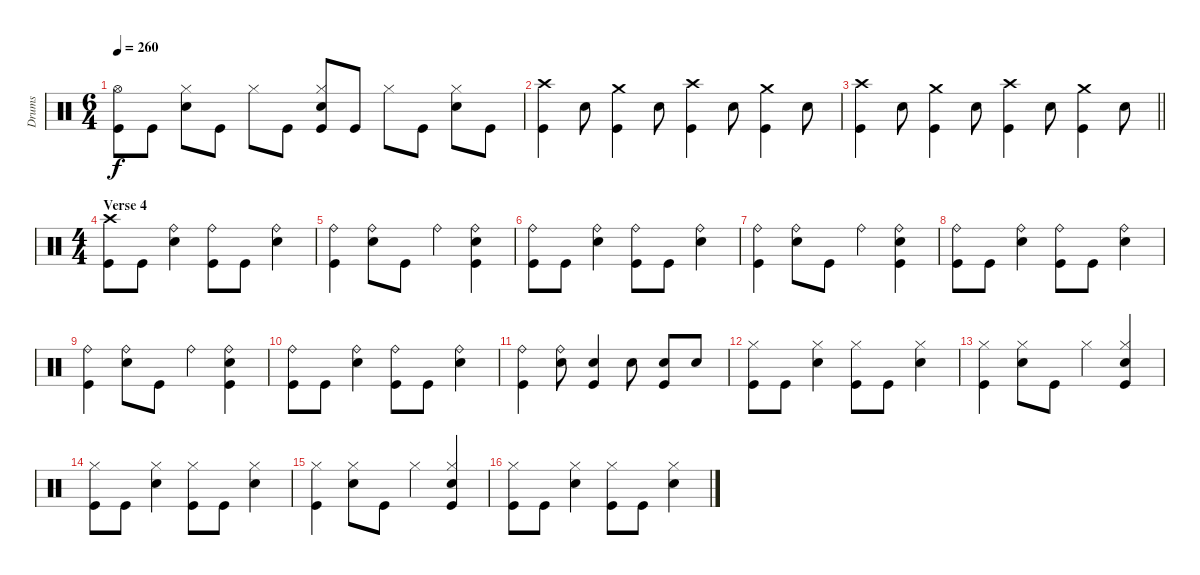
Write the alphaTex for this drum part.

\track ("Drums" "Drums") {instrument percussion}
\staff {score}
\articulation defaults
\ts (6 4)
\tempo 260
\clef neutral
\ks c
("Hi-Hat (open)" "Kick (hit)").8{dy f} "Kick (hit)".8 ("Hi-Hat (closed)" "Snare (hit) 2").8 "Kick (hit)".8 "Hi-Hat (closed)".8 "Kick (hit)".8 ("Hi-Hat (closed)" "Snare (hit) 2" "Kick (hit)").8 "Kick (hit)".8 "Hi-Hat (closed)".8 "Kick (hit)".8 ("Hi-Hat (closed)" "Snare (hit) 2").8 "Kick (hit)".8 |
("Crash high (hit)" "Kick (hit)").4 "Snare (hit) 2".8 ("Crash medium (hit)" "Kick (hit)").4 "Snare (hit) 2".8 ("Crash high (hit)" "Kick (hit)").4 "Snare (hit) 2".8 ("Crash medium (hit)" "Kick (hit)").4 "Snare (hit) 2".8 |
\barLineRight lightlight
("Crash high (hit)" "Kick (hit)").4 "Snare (hit) 2".8 ("Crash medium (hit)" "Kick (hit)").4 "Snare (hit) 2".8 ("Crash high (hit)" "Kick (hit)").4 "Snare (hit) 2".8 ("Crash medium (hit)" "Kick (hit)").4 "Snare (hit) 2".8 |
\ts (4 4)
\section ("" "Verse 4")
("Crash high (hit)" "Kick (hit)").8 "Kick (hit)".8 ("Ride (bell)" "Snare (hit) 2").4 ("Ride (bell)" "Kick (hit)").8 "Kick (hit)".8 ("Ride (bell)" "Snare (hit) 2").4 |
("Ride (bell)" "Kick (hit)").4 ("Ride (bell)" "Snare (hit) 2").8 "Kick (hit)".8 "Ride (bell)".4 ("Ride (bell)" "Snare (hit) 2" "Kick (hit)").4 |
("Ride (bell)" "Kick (hit)").8 "Kick (hit)".8 ("Ride (bell)" "Snare (hit) 2").4 ("Ride (bell)" "Kick (hit)").8 "Kick (hit)".8 ("Ride (bell)" "Snare (hit) 2").4 |
("Ride (bell)" "Kick (hit)").4 ("Ride (bell)" "Snare (hit) 2").8 "Kick (hit)".8 "Ride (bell)".4 ("Ride (bell)" "Snare (hit) 2" "Kick (hit)").4 |
("Ride (bell)" "Kick (hit)").8 "Kick (hit)".8 ("Ride (bell)" "Snare (hit) 2").4 ("Ride (bell)" "Kick (hit)").8 "Kick (hit)".8 ("Ride (bell)" "Snare (hit) 2").4 |
("Ride (bell)" "Kick (hit)").4 ("Ride (bell)" "Snare (hit) 2").8 "Kick (hit)".8 "Ride (bell)".4 ("Ride (bell)" "Snare (hit) 2" "Kick (hit)").4 |
("Ride (bell)" "Kick (hit)").8 "Kick (hit)".8 ("Ride (bell)" "Snare (hit) 2").4 ("Ride (bell)" "Kick (hit)").8 "Kick (hit)".8 ("Ride (bell)" "Snare (hit) 2").4 |
("Ride (bell)" "Kick (hit)").4 ("Ride (bell)" "Snare (hit) 2").8 ("Snare (hit) 2" "Kick (hit)").4 "Snare (hit) 2".8 ("Snare (hit) 2" "Kick (hit)").8 "Snare (hit) 2".8 |
("Hi-Hat (closed)" "Kick (hit)").8 "Kick (hit)".8 ("Hi-Hat (closed)" "Snare (hit) 2").4 ("Hi-Hat (closed)" "Kick (hit)").8 "Kick (hit)".8 ("Hi-Hat (closed)" "Snare (hit) 2").4 |
("Hi-Hat (closed)" "Kick (hit)").4 ("Hi-Hat (closed)" "Snare (hit) 2").8 "Kick (hit)".8 "Hi-Hat (closed)".4 ("Hi-Hat (closed)" "Snare (hit) 2" "Kick (hit)").4 |
("Hi-Hat (closed)" "Kick (hit)").8 "Kick (hit)".8 ("Hi-Hat (closed)" "Snare (hit) 2").4 ("Hi-Hat (closed)" "Kick (hit)").8 "Kick (hit)".8 ("Hi-Hat (closed)" "Snare (hit) 2").4 |
("Hi-Hat (closed)" "Kick (hit)").4 ("Hi-Hat (closed)" "Snare (hit) 2").8 "Kick (hit)".8 "Hi-Hat (closed)".4 ("Hi-Hat (closed)" "Snare (hit) 2" "Kick (hit)").4 |
("Hi-Hat (closed)" "Kick (hit)").8 "Kick (hit)".8 ("Hi-Hat (closed)" "Snare (hit) 2").4 ("Hi-Hat (closed)" "Kick (hit)").8 "Kick (hit)".8 ("Hi-Hat (closed)" "Snare (hit) 2").4
